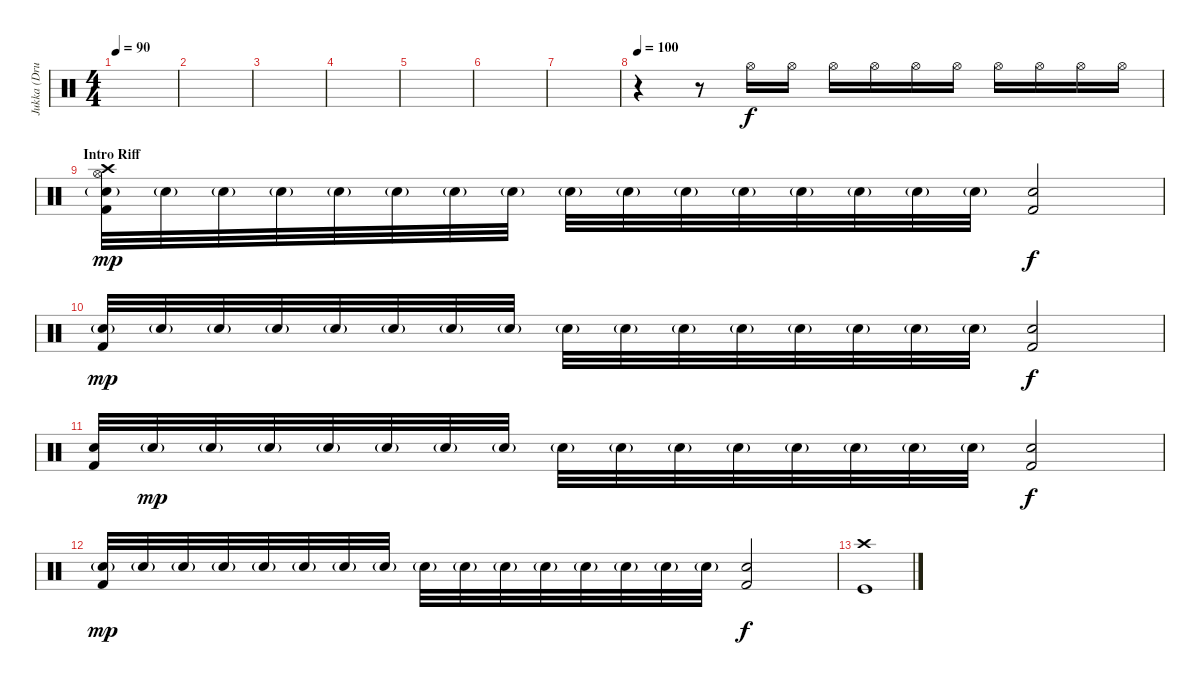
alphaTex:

\track ("Jukka (Drums)" "Jukka (Dru") {instrument percussion}
\staff {score}
\articulation defaults
\ts (4 4)
\tempo 90
\clef neutral
\ks c
|
|
|
|
|
|
|
\tempo 100
r.4 r.8 "Hi-Hat (open)".16{volume 2} "Hi-Hat (open)".16{volume 4} "Hi-Hat (open)".16{volume 6} "Hi-Hat (open)".16{volume 8} "Hi-Hat (open)".16{volume 10} "Hi-Hat (open)".16{volume 12} "Hi-Hat (open)".16{volume 13} "Hi-Hat (open)".16{volume 14} "Hi-Hat (open)".16{volume 15} "Hi-Hat (open)".16{volume 16} |
\section ("" "Intro Riff")
("Crash high (hit)" "Hi-Hat (open)" "Snare (hit) 2"{g} "Kick (hit) 2").32{dy mp volume 13} "Snare (hit) 2"{g}.32 "Snare (hit) 2"{g}.32 "Snare (hit) 2"{g}.32 "Snare (hit) 2"{g}.32 "Snare (hit) 2"{g}.32 "Snare (hit) 2"{g}.32 "Snare (hit) 2"{g}.32 "Snare (hit) 2"{g}.32 "Snare (hit) 2"{g}.32 "Snare (hit) 2"{g}.32 "Snare (hit) 2"{g}.32 "Snare (hit) 2"{g}.32 "Snare (hit) 2"{g}.32 "Snare (hit) 2"{g}.32 "Snare (hit) 2"{g}.32 ("Snare (hit) 2" "Kick (hit) 2").2{dy f} |
("Snare (hit) 2"{g} "Kick (hit) 2").32{dy mp} "Snare (hit) 2"{g}.32 "Snare (hit) 2"{g}.32 "Snare (hit) 2"{g}.32 "Snare (hit) 2"{g}.32 "Snare (hit) 2"{g}.32 "Snare (hit) 2"{g}.32 "Snare (hit) 2"{g}.32 "Snare (hit) 2"{g}.32 "Snare (hit) 2"{g}.32 "Snare (hit) 2"{g}.32 "Snare (hit) 2"{g}.32 "Snare (hit) 2"{g}.32 "Snare (hit) 2"{g}.32 "Snare (hit) 2"{g}.32 "Snare (hit) 2"{g}.32 ("Snare (hit) 2" "Kick (hit) 2").2{dy f} |
("Snare (hit) 2" "Kick (hit) 2").32 "Snare (hit) 2"{g}.32{dy mp} "Snare (hit) 2"{g}.32 "Snare (hit) 2"{g}.32 "Snare (hit) 2"{g}.32 "Snare (hit) 2"{g}.32 "Snare (hit) 2"{g}.32 "Snare (hit) 2"{g}.32 "Snare (hit) 2"{g}.32 "Snare (hit) 2"{g}.32 "Snare (hit) 2"{g}.32 "Snare (hit) 2"{g}.32 "Snare (hit) 2"{g}.32 "Snare (hit) 2"{g}.32 "Snare (hit) 2"{g}.32 "Snare (hit) 2"{g}.32 ("Snare (hit) 2" "Kick (hit) 2").2{dy f} |
("Snare (hit) 2"{g} "Kick (hit) 2").32{dy mp} "Snare (hit) 2"{g}.32 "Snare (hit) 2"{g}.32 "Snare (hit) 2"{g}.32 "Snare (hit) 2"{g}.32 "Snare (hit) 2"{g}.32 "Snare (hit) 2"{g}.32 "Snare (hit) 2"{g}.32 "Snare (hit) 2"{g}.32 "Snare (hit) 2"{g}.32 "Snare (hit) 2"{g}.32 "Snare (hit) 2"{g}.32 "Snare (hit) 2"{g}.32 "Snare (hit) 2"{g}.32 "Snare (hit) 2"{g}.32 "Snare (hit) 2"{g}.32 ("Snare (hit) 2" "Kick (hit) 2").2{dy f} |
("Crash high (hit)" "Kick (hit)").1
